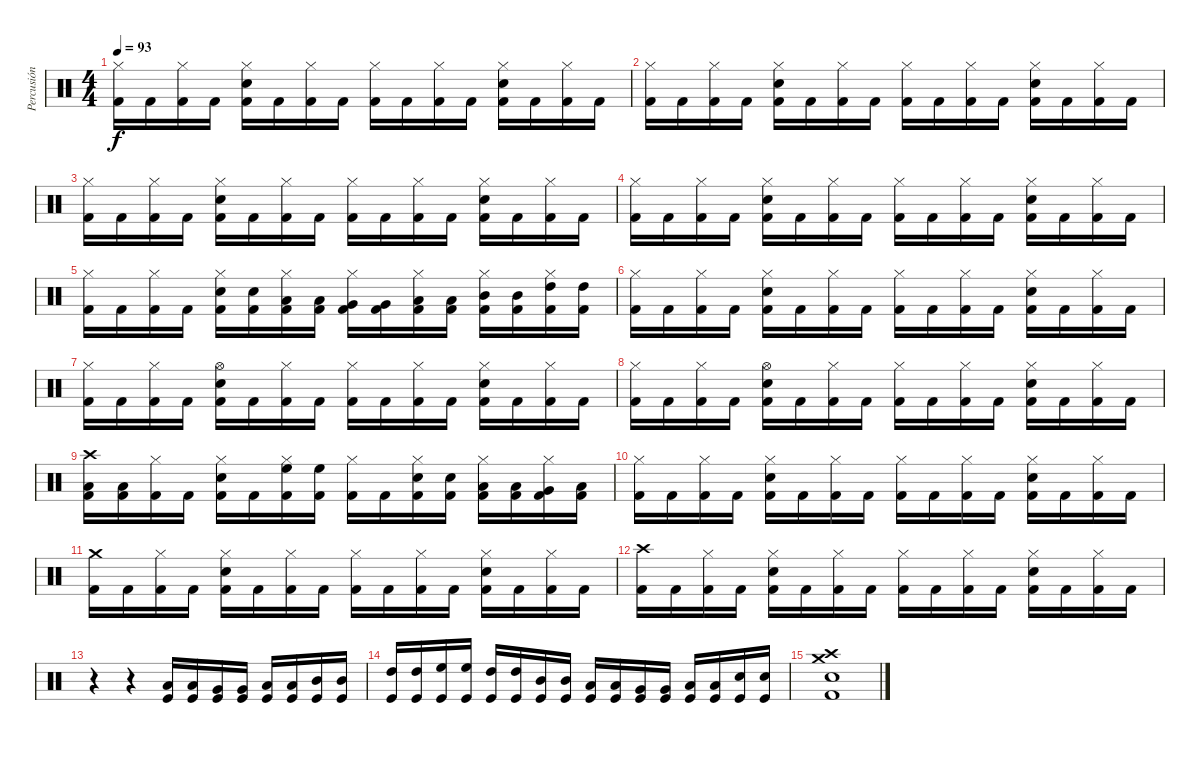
\track ("Percusión" "Percusión") {instrument percussion}
\staff {score}
\articulation defaults
\ts (4 4)
\tempo 93
\clef neutral
\ks c
("Hi-Hat (closed)" "Kick (hit) 2").16{dy f} "Kick (hit) 2".16 ("Hi-Hat (closed)" "Kick (hit) 2").16 "Kick (hit) 2".16 ("Hi-Hat (closed)" "Snare (hit) 2" "Kick (hit) 2").16 "Kick (hit) 2".16 ("Hi-Hat (closed)" "Kick (hit) 2").16 "Kick (hit) 2".16 ("Hi-Hat (closed)" "Kick (hit) 2").16 "Kick (hit) 2".16 ("Hi-Hat (closed)" "Kick (hit) 2").16 "Kick (hit) 2".16 ("Hi-Hat (closed)" "Snare (hit) 2" "Kick (hit) 2").16 "Kick (hit) 2".16 ("Hi-Hat (closed)" "Kick (hit) 2").16 "Kick (hit) 2".16 |
("Hi-Hat (closed)" "Kick (hit) 2").16 "Kick (hit) 2".16 ("Hi-Hat (closed)" "Kick (hit) 2").16 "Kick (hit) 2".16 ("Hi-Hat (closed)" "Snare (hit) 2" "Kick (hit) 2").16 "Kick (hit) 2".16 ("Hi-Hat (closed)" "Kick (hit) 2").16 "Kick (hit) 2".16 ("Hi-Hat (closed)" "Kick (hit) 2").16 "Kick (hit) 2".16 ("Hi-Hat (closed)" "Kick (hit) 2").16 "Kick (hit) 2".16 ("Hi-Hat (closed)" "Snare (hit) 2" "Kick (hit) 2").16 "Kick (hit) 2".16 ("Hi-Hat (closed)" "Kick (hit) 2").16 "Kick (hit) 2".16 |
("Hi-Hat (closed)" "Kick (hit) 2").16 "Kick (hit) 2".16 ("Hi-Hat (closed)" "Kick (hit) 2").16 "Kick (hit) 2".16 ("Hi-Hat (closed)" "Snare (hit) 2" "Kick (hit) 2").16 "Kick (hit) 2".16 ("Hi-Hat (closed)" "Kick (hit) 2").16 "Kick (hit) 2".16 ("Hi-Hat (closed)" "Kick (hit) 2").16 "Kick (hit) 2".16 ("Hi-Hat (closed)" "Kick (hit) 2").16 "Kick (hit) 2".16 ("Hi-Hat (closed)" "Snare (hit) 2" "Kick (hit) 2").16 "Kick (hit) 2".16 ("Hi-Hat (closed)" "Kick (hit) 2").16 "Kick (hit) 2".16 |
("Hi-Hat (closed)" "Kick (hit) 2").16 "Kick (hit) 2".16 ("Hi-Hat (closed)" "Kick (hit) 2").16 "Kick (hit) 2".16 ("Hi-Hat (closed)" "Snare (hit) 2" "Kick (hit) 2").16 "Kick (hit) 2".16 ("Hi-Hat (closed)" "Kick (hit) 2").16 "Kick (hit) 2".16 ("Hi-Hat (closed)" "Kick (hit) 2").16 "Kick (hit) 2".16 ("Hi-Hat (closed)" "Kick (hit) 2").16 "Kick (hit) 2".16 ("Hi-Hat (closed)" "Snare (hit) 2" "Kick (hit) 2").16 "Kick (hit) 2".16 ("Hi-Hat (closed)" "Kick (hit) 2").16 "Kick (hit) 2".16 |
("Hi-Hat (closed)" "Kick (hit) 2").16 "Kick (hit) 2".16 ("Hi-Hat (closed)" "Kick (hit) 2").16 "Kick (hit) 2".16 ("Hi-Hat (closed)" "Snare (hit) 2" "Kick (hit) 2").16 ("Electric Snare (hit)" "Kick (hit) 2").16 ("Hi-Hat (closed)" "Low Floor Tom (hit)" "Kick (hit) 2").16 ("Low Floor Tom (hit)" "Kick (hit) 2").16 ("Hi-Hat (closed)" "Very Low Tom (hit)" "Kick (hit) 2").16 ("Very Low Tom (hit)" "Kick (hit) 2").16 ("Hi-Hat (closed)" "Low Tom (hit)" "Kick (hit) 2").16 ("Low Tom (hit)" "Kick (hit) 2").16 ("Hi-Hat (closed)" "Mid Tom (hit)" "Kick (hit) 2").16 ("Mid Tom (hit)" "Kick (hit) 2").16 ("Hi-Hat (closed)" "High Tom (hit)" "Kick (hit) 2").16 ("High Tom (hit)" "Kick (hit) 2").16 |
("Hi-Hat (closed)" "Kick (hit) 2").16 "Kick (hit) 2".16 ("Hi-Hat (closed)" "Kick (hit) 2").16 "Kick (hit) 2".16 ("Hi-Hat (closed)" "Snare (hit) 2" "Kick (hit) 2").16 "Kick (hit) 2".16 ("Hi-Hat (closed)" "Kick (hit) 2").16 "Kick (hit) 2".16 ("Hi-Hat (closed)" "Kick (hit) 2").16 "Kick (hit) 2".16 ("Hi-Hat (closed)" "Kick (hit) 2").16 "Kick (hit) 2".16 ("Hi-Hat (closed)" "Snare (hit) 2" "Kick (hit) 2").16 "Kick (hit) 2".16 ("Hi-Hat (closed)" "Kick (hit) 2").16 "Kick (hit) 2".16 |
("Hi-Hat (closed)" "Kick (hit) 2").16 "Kick (hit) 2".16 ("Hi-Hat (closed)" "Kick (hit) 2").16 "Kick (hit) 2".16 ("Hi-Hat (open)" "Snare (hit) 2" "Kick (hit) 2").16 "Kick (hit) 2".16 ("Hi-Hat (closed)" "Kick (hit) 2").16 "Kick (hit) 2".16 ("Hi-Hat (closed)" "Kick (hit) 2").16 "Kick (hit) 2".16 ("Hi-Hat (closed)" "Kick (hit) 2").16 "Kick (hit) 2".16 ("Hi-Hat (closed)" "Snare (hit) 2" "Kick (hit) 2").16 "Kick (hit) 2".16 ("Hi-Hat (closed)" "Kick (hit) 2").16 "Kick (hit) 2".16 |
("Hi-Hat (closed)" "Kick (hit) 2").16 "Kick (hit) 2".16 ("Hi-Hat (closed)" "Kick (hit) 2").16 "Kick (hit) 2".16 ("Hi-Hat (open)" "Snare (hit) 2" "Kick (hit) 2").16 "Kick (hit) 2".16 ("Hi-Hat (closed)" "Kick (hit) 2").16 "Kick (hit) 2".16 ("Hi-Hat (closed)" "Kick (hit) 2").16 "Kick (hit) 2".16 ("Hi-Hat (closed)" "Kick (hit) 2").16 "Kick (hit) 2".16 ("Hi-Hat (closed)" "Snare (hit) 2" "Kick (hit) 2").16 "Kick (hit) 2".16 ("Hi-Hat (closed)" "Kick (hit) 2").16 "Kick (hit) 2".16 |
("Crash high (hit)" "Low Floor Tom (hit)" "Kick (hit) 2").16 ("Low Floor Tom (hit)" "Kick (hit) 2").16 ("Hi-Hat (closed)" "Kick (hit) 2").16 "Kick (hit) 2".16 ("Hi-Hat (closed)" "Snare (hit) 2" "Kick (hit) 2").16 "Kick (hit) 2".16 ("Hi-Hat (closed)" "High Floor Tom (hit)" "Kick (hit) 2").16 ("High Floor Tom (hit)" "Kick (hit) 2").16 ("Hi-Hat (closed)" "Kick (hit) 2").16 "Kick (hit) 2".16 ("Hi-Hat (closed)" "Snare (hit) 2" "Kick (hit) 2").16 ("Electric Snare (hit)" "Kick (hit) 2").16 ("Hi-Hat (closed)" "Low Floor Tom (hit)" "Kick (hit) 2").16 ("Low Floor Tom (hit)" "Kick (hit) 2").16 ("Hi-Hat (closed)" "Very Low Tom (hit)" "Kick (hit) 2").16 ("Low Tom (hit)" "Kick (hit) 2").16 |
("Hi-Hat (closed)" "Kick (hit) 2").16 "Kick (hit) 2".16 ("Hi-Hat (closed)" "Kick (hit) 2").16 "Kick (hit) 2".16 ("Hi-Hat (closed)" "Snare (hit) 2" "Kick (hit) 2").16 "Kick (hit) 2".16 ("Hi-Hat (closed)" "Kick (hit) 2").16 "Kick (hit) 2".16 ("Hi-Hat (closed)" "Kick (hit) 2").16 "Kick (hit) 2".16 ("Hi-Hat (closed)" "Kick (hit) 2").16 "Kick (hit) 2".16 ("Hi-Hat (closed)" "Snare (hit) 2" "Kick (hit) 2").16 "Kick (hit) 2".16 ("Hi-Hat (closed)" "Kick (hit) 2").16 "Kick (hit) 2".16 |
("Crash medium (hit)" "Kick (hit) 2").16 "Kick (hit) 2".16 ("Hi-Hat (closed)" "Kick (hit) 2").16 "Kick (hit) 2".16 ("Hi-Hat (closed)" "Snare (hit) 2" "Kick (hit) 2").16 "Kick (hit) 2".16 ("Hi-Hat (closed)" "Kick (hit) 2").16 "Kick (hit) 2".16 ("Hi-Hat (closed)" "Kick (hit) 2").16 "Kick (hit) 2".16 ("Hi-Hat (closed)" "Kick (hit) 2").16 "Kick (hit) 2".16 ("Hi-Hat (closed)" "Snare (hit) 2" "Kick (hit) 2").16 "Kick (hit) 2".16 ("Hi-Hat (closed)" "Kick (hit) 2").16 "Kick (hit) 2".16 |
("Crash high (hit)" "Kick (hit) 2").16 "Kick (hit) 2".16 ("Hi-Hat (closed)" "Kick (hit) 2").16 "Kick (hit) 2".16 ("Hi-Hat (closed)" "Snare (hit) 2" "Kick (hit) 2").16 "Kick (hit) 2".16 ("Hi-Hat (closed)" "Kick (hit) 2").16 "Kick (hit) 2".16 ("Hi-Hat (closed)" "Kick (hit) 2").16 "Kick (hit) 2".16 ("Hi-Hat (closed)" "Kick (hit) 2").16 "Kick (hit) 2".16 ("Hi-Hat (closed)" "Snare (hit) 2" "Kick (hit) 2").16 "Kick (hit) 2".16 ("Hi-Hat (closed)" "Kick (hit) 2").16 "Kick (hit) 2".16 |
r.4 r.4 ("Low Floor Tom (hit)" "Kick (hit)").16 ("Low Floor Tom (hit)" "Kick (hit)").16 ("Very Low Tom (hit)" "Kick (hit)").16 ("Very Low Tom (hit)" "Kick (hit)").16 ("Low Tom (hit)" "Kick (hit)").16 ("Low Tom (hit)" "Kick (hit)").16 ("Mid Tom (hit)" "Kick (hit)").16 ("Mid Tom (hit)" "Kick (hit)").16 |
("High Tom (hit)" "Kick (hit)").16 ("High Tom (hit)" "Kick (hit)").16 ("High Floor Tom (hit)" "Kick (hit)").16 ("High Floor Tom (hit)" "Kick (hit)").16 ("High Tom (hit)" "Kick (hit)").16 ("High Tom (hit)" "Kick (hit)").16 ("Mid Tom (hit)" "Kick (hit)").16 ("Mid Tom (hit)" "Kick (hit)").16 ("Low Tom (hit)" "Kick (hit)").16 ("Low Tom (hit)" "Kick (hit)").16 ("Very Low Tom (hit)" "Kick (hit)").16 ("Very Low Tom (hit)" "Kick (hit)").16 ("Low Floor Tom (hit)" "Kick (hit)").16 ("Low Floor Tom (hit)" "Kick (hit)").16 ("Snare (hit) 2" "Kick (hit)").16 ("Snare (hit) 2" "Kick (hit)").16 |
("Crash high (hit)" "Crash medium (hit)" "Snare (hit) 2" "Kick (hit) 2").1
